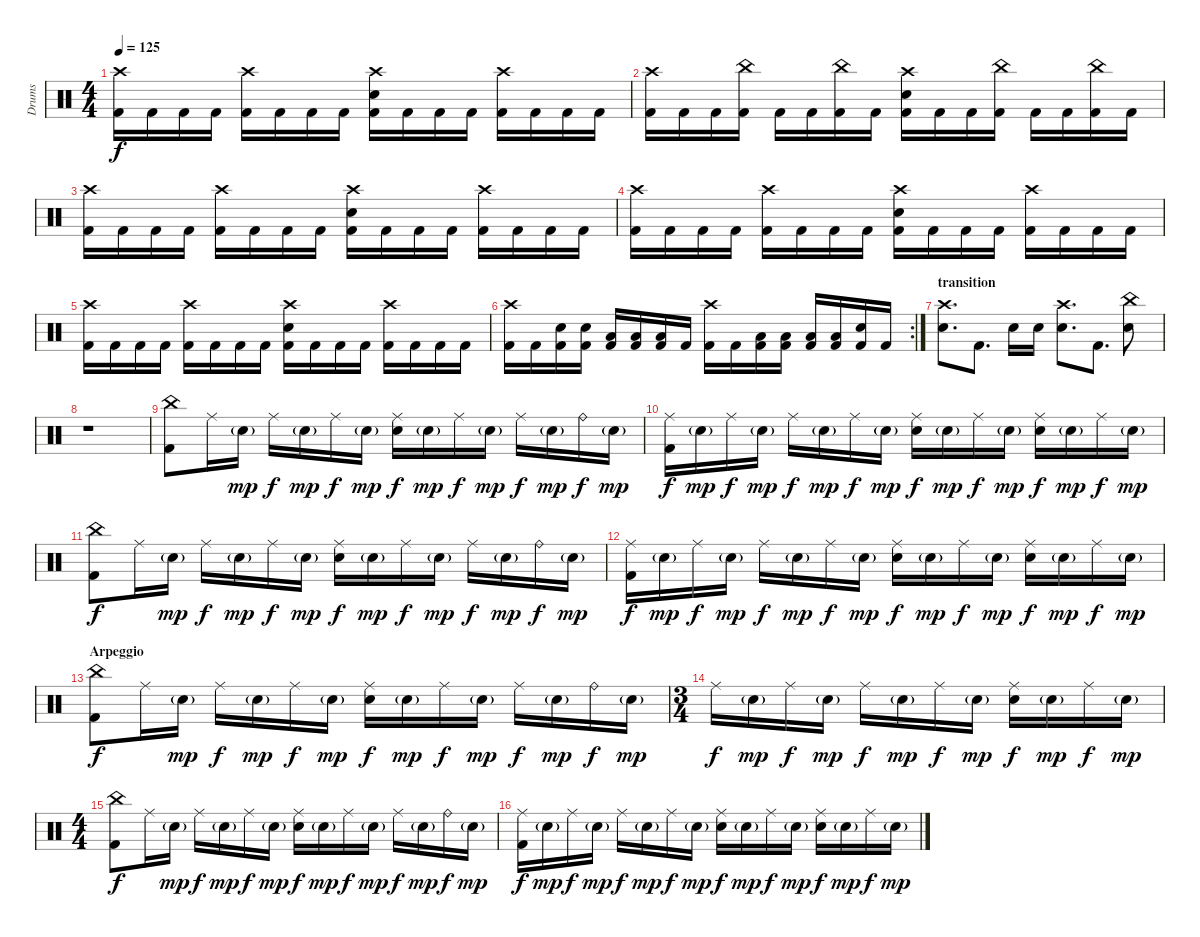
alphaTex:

\track ("Drums" "Drums") {instrument percussion}
\staff {score}
\articulation defaults
\ts (4 4)
\tempo 125
\clef neutral
\ks c
("Crash high (hit)" "Kick (hit) 2").16{dy f} "Kick (hit) 2".16 "Kick (hit) 2".16 "Kick (hit) 2".16 ("Crash high (hit)" "Kick (hit) 2").16 "Kick (hit) 2".16 "Kick (hit) 2".16 "Kick (hit) 2".16 ("Crash high (hit)" "Electric Snare (hit)" "Kick (hit) 2").16 "Kick (hit) 2".16 "Kick (hit) 2".16 "Kick (hit) 2".16 ("Crash high (hit)" "Kick (hit) 2").16 "Kick (hit) 2".16 "Kick (hit) 2".16 "Kick (hit) 2".16 |
("Crash high (hit)" "Kick (hit) 2").16 "Kick (hit) 2".16 "Kick (hit) 2".16 ("China (hit)" "Kick (hit) 2").16 "Kick (hit) 2".16 "Kick (hit) 2".16 ("China (hit)" "Kick (hit) 2").16 "Kick (hit) 2".16 ("Crash high (hit)" "Electric Snare (hit)" "Kick (hit) 2").16 "Kick (hit) 2".16 "Kick (hit) 2".16 ("China (hit)" "Kick (hit) 2").16 "Kick (hit) 2".16 "Kick (hit) 2".16 ("China (hit)" "Kick (hit) 2").16 "Kick (hit) 2".16 |
("Crash high (hit)" "Kick (hit) 2").16 "Kick (hit) 2".16 "Kick (hit) 2".16 "Kick (hit) 2".16 ("Crash high (hit)" "Kick (hit) 2").16 "Kick (hit) 2".16 "Kick (hit) 2".16 "Kick (hit) 2".16 ("Crash high (hit)" "Electric Snare (hit)" "Kick (hit) 2").16 "Kick (hit) 2".16 "Kick (hit) 2".16 "Kick (hit) 2".16 ("Crash high (hit)" "Kick (hit) 2").16 "Kick (hit) 2".16 "Kick (hit) 2".16 "Kick (hit) 2".16 |
("Crash high (hit)" "Kick (hit) 2").16 "Kick (hit) 2".16 "Kick (hit) 2".16 "Kick (hit) 2".16 ("Crash high (hit)" "Kick (hit) 2").16 "Kick (hit) 2".16 "Kick (hit) 2".16 "Kick (hit) 2".16 ("Crash high (hit)" "Electric Snare (hit)" "Kick (hit) 2").16 "Kick (hit) 2".16 "Kick (hit) 2".16 "Kick (hit) 2".16 ("Crash high (hit)" "Kick (hit) 2").16 "Kick (hit) 2".16 "Kick (hit) 2".16 "Kick (hit) 2".16 |
("Crash high (hit)" "Kick (hit) 2").16 "Kick (hit) 2".16 "Kick (hit) 2".16 "Kick (hit) 2".16 ("Crash high (hit)" "Kick (hit) 2").16 "Kick (hit) 2".16 "Kick (hit) 2".16 "Kick (hit) 2".16 ("Crash high (hit)" "Electric Snare (hit)" "Kick (hit) 2").16 "Kick (hit) 2".16 "Kick (hit) 2".16 "Kick (hit) 2".16 ("Crash high (hit)" "Kick (hit) 2").16 "Kick (hit) 2".16 "Kick (hit) 2".16 "Kick (hit) 2".16 |
\rc 2
("Crash high (hit)" "Kick (hit) 2").16 "Kick (hit) 2".16 ("Electric Snare (hit)" "Kick (hit) 2").16 ("Electric Snare (hit)" "Kick (hit) 2").16 ("Low Tom (hit)" "Kick (hit) 2").16 ("Low Tom (hit)" "Kick (hit) 2").16 ("Low Floor Tom (hit)" "Kick (hit) 2").16 "Kick (hit) 2".16 ("Crash high (hit)" "Kick (hit) 2").16 "Kick (hit) 2".16 ("Low Tom (hit)" "Kick (hit) 2").16 ("Low Tom (hit)" "Kick (hit) 2").16 ("Low Floor Tom (hit)" "Kick (hit) 2").16 ("Low Floor Tom (hit)" "Kick (hit) 2").16 ("Electric Snare (hit)" "Kick (hit) 2").16 "Kick (hit) 2".16 |
\section ("" "transition")
("Crash high (hit)" "Electric Snare (hit)").8{d} "Kick (hit) 2".8{d} "Electric Snare (hit)".16 "Electric Snare (hit)".16 ("Crash high (hit)" "Electric Snare (hit)").8{d} "Kick (hit) 2".8{d} ("China (hit)" "Electric Snare (hit)").8 |
r.1 |
("China (hit)" "Kick (hit) 2").8 "Ride (middle)".16 "Electric Snare (hit)"{g}.16{dy mp} "Ride (middle)".16{dy f} "Electric Snare (hit)"{g}.16{dy mp} "Ride (middle)".16{dy f} "Electric Snare (hit)"{g}.16{dy mp} ("Ride (middle)" "Electric Snare (hit)").16{dy f} "Electric Snare (hit)"{g}.16{dy mp} "Ride (middle)".16{dy f} "Electric Snare (hit)"{g}.16{dy mp} "Ride (middle)".16{dy f} "Electric Snare (hit)"{g}.16{dy mp} "Ride (bell)".16{dy f} "Electric Snare (hit)"{g}.16{dy mp} |
("Ride (middle)" "Kick (hit) 2").16{dy f} "Electric Snare (hit)"{g}.16{dy mp} "Ride (middle)".16{dy f} "Electric Snare (hit)"{g}.16{dy mp} "Ride (middle)".16{dy f} "Electric Snare (hit)"{g}.16{dy mp} "Ride (middle)".16{dy f} "Electric Snare (hit)"{g}.16{dy mp} ("Ride (middle)" "Electric Snare (hit)").16{dy f} "Electric Snare (hit)"{g}.16{dy mp} "Ride (middle)".16{dy f} "Electric Snare (hit)"{g}.16{dy mp} ("Ride (middle)" "Electric Snare (hit)").16{dy f} "Electric Snare (hit)"{g}.16{dy mp} "Ride (middle)".16{dy f} "Electric Snare (hit)"{g}.16{dy mp} |
("China (hit)" "Kick (hit) 2").8{dy f} "Ride (middle)".16 "Electric Snare (hit)"{g}.16{dy mp} "Ride (middle)".16{dy f} "Electric Snare (hit)"{g}.16{dy mp} "Ride (middle)".16{dy f} "Electric Snare (hit)"{g}.16{dy mp} ("Ride (middle)" "Electric Snare (hit)").16{dy f} "Electric Snare (hit)"{g}.16{dy mp} "Ride (middle)".16{dy f} "Electric Snare (hit)"{g}.16{dy mp} "Ride (middle)".16{dy f} "Electric Snare (hit)"{g}.16{dy mp} "Ride (bell)".16{dy f} "Electric Snare (hit)"{g}.16{dy mp} |
("Ride (middle)" "Kick (hit) 2").16{dy f} "Electric Snare (hit)"{g}.16{dy mp} "Ride (middle)".16{dy f} "Electric Snare (hit)"{g}.16{dy mp} "Ride (middle)".16{dy f} "Electric Snare (hit)"{g}.16{dy mp} "Ride (middle)".16{dy f} "Electric Snare (hit)"{g}.16{dy mp} ("Ride (middle)" "Electric Snare (hit)").16{dy f} "Electric Snare (hit)"{g}.16{dy mp} "Ride (middle)".16{dy f} "Electric Snare (hit)"{g}.16{dy mp} ("Ride (middle)" "Electric Snare (hit)").16{dy f} "Electric Snare (hit)"{g}.16{dy mp} "Ride (middle)".16{dy f} "Electric Snare (hit)"{g}.16{dy mp} |
\section ("" "Arpeggio")
("China (hit)" "Kick (hit) 2").8{dy f} "Ride (middle)".16 "Electric Snare (hit)"{g}.16{dy mp} "Ride (middle)".16{dy f} "Electric Snare (hit)"{g}.16{dy mp} "Ride (middle)".16{dy f} "Electric Snare (hit)"{g}.16{dy mp} ("Ride (middle)" "Electric Snare (hit)").16{dy f} "Electric Snare (hit)"{g}.16{dy mp} "Ride (middle)".16{dy f} "Electric Snare (hit)"{g}.16{dy mp} "Ride (middle)".16{dy f} "Electric Snare (hit)"{g}.16{dy mp} "Ride (bell)".16{dy f} "Electric Snare (hit)"{g}.16{dy mp} |
\ts (3 4)
"Ride (middle)".16{dy f} "Electric Snare (hit)"{g}.16{dy mp} "Ride (middle)".16{dy f} "Electric Snare (hit)"{g}.16{dy mp} "Ride (middle)".16{dy f} "Electric Snare (hit)"{g}.16{dy mp} "Ride (middle)".16{dy f} "Electric Snare (hit)"{g}.16{dy mp} ("Ride (middle)" "Electric Snare (hit)").16{dy f} "Electric Snare (hit)"{g}.16{dy mp} "Ride (middle)".16{dy f} "Electric Snare (hit)"{g}.16{dy mp} |
\ts (4 4)
("China (hit)" "Kick (hit) 2").8{dy f} "Ride (middle)".16 "Electric Snare (hit)"{g}.16{dy mp} "Ride (middle)".16{dy f} "Electric Snare (hit)"{g}.16{dy mp} "Ride (middle)".16{dy f} "Electric Snare (hit)"{g}.16{dy mp} ("Ride (middle)" "Electric Snare (hit)").16{dy f} "Electric Snare (hit)"{g}.16{dy mp} "Ride (middle)".16{dy f} "Electric Snare (hit)"{g}.16{dy mp} "Ride (middle)".16{dy f} "Electric Snare (hit)"{g}.16{dy mp} "Ride (bell)".16{dy f} "Electric Snare (hit)"{g}.16{dy mp} |
("Ride (middle)" "Kick (hit) 2").16{dy f} "Electric Snare (hit)"{g}.16{dy mp} "Ride (middle)".16{dy f} "Electric Snare (hit)"{g}.16{dy mp} "Ride (middle)".16{dy f} "Electric Snare (hit)"{g}.16{dy mp} "Ride (middle)".16{dy f} "Electric Snare (hit)"{g}.16{dy mp} ("Ride (middle)" "Electric Snare (hit)").16{dy f} "Electric Snare (hit)"{g}.16{dy mp} "Ride (middle)".16{dy f} "Electric Snare (hit)"{g}.16{dy mp} ("Ride (middle)" "Electric Snare (hit)").16{dy f} "Electric Snare (hit)"{g}.16{dy mp} "Ride (middle)".16{dy f} "Electric Snare (hit)"{g}.16{dy mp}
